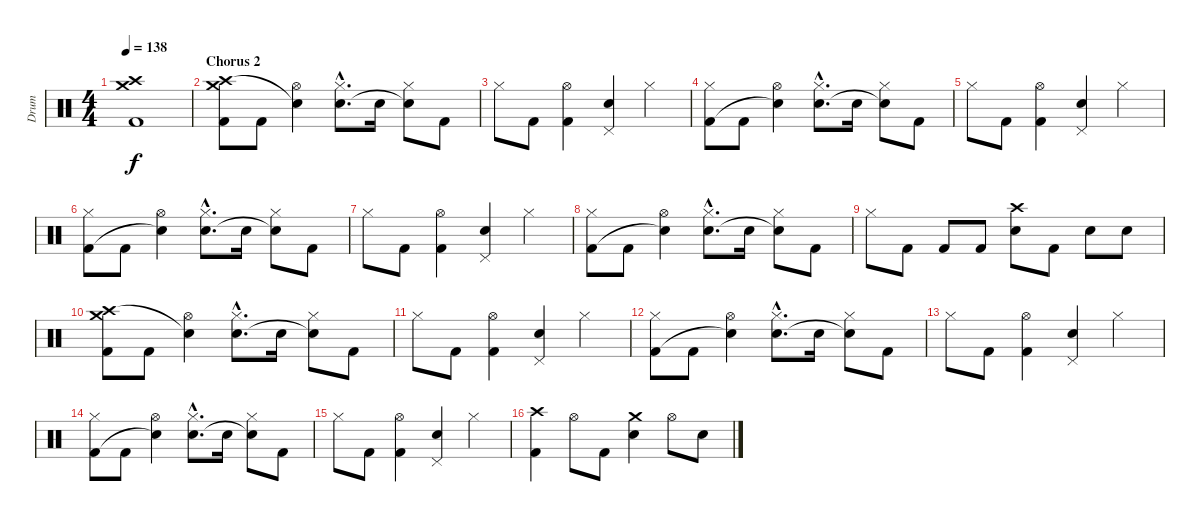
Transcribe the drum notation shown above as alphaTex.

\track ("Drum" "Drum") {instrument percussion}
\staff {score}
\articulation defaults
\ts (4 4)
\tempo 138
\clef neutral
\ks c
("Kick (hit) 2" "Crash high (hit)" "Crash medium (hit)").1{dy f} |
\section ("" "Chorus 2")
("Kick (hit) 2" "Crash high (hit)" "Crash medium (hit)").8 "Kick (hit) 2".8 ("Hi-Hat (open)" "Snare (hit)"{t}).4 ("Hi-Hat (closed)"{hac} "Electric Snare (hit)"{hac}).8{d} "Electric Snare (hit)".16 ("Hi-Hat (closed)" "Snare (hit)"{t}).8 "Kick (hit) 2".8 |
"Hi-Hat (closed)".8 "Kick (hit) 2".8 ("Hi-Hat (open)" "Kick (hit) 2").4 ("Pedal Hi-Hat (hit)" "Electric Snare (hit)").4 "Hi-Hat (closed)".4 |
("Hi-Hat (closed)" "Kick (hit) 2").8 "Kick (hit) 2".8 ("Hi-Hat (open)" "Snare (hit)"{t}).4 ("Hi-Hat (closed)"{hac} "Electric Snare (hit)"{hac}).8{d} "Electric Snare (hit)".16 ("Hi-Hat (closed)" "Snare (hit)"{t}).8 "Kick (hit) 2".8 |
"Hi-Hat (closed)".8 "Kick (hit) 2".8 ("Hi-Hat (open)" "Kick (hit) 2").4 ("Pedal Hi-Hat (hit)" "Electric Snare (hit)").4 "Hi-Hat (closed)".4 |
("Hi-Hat (closed)" "Kick (hit) 2").8 "Kick (hit) 2".8 ("Hi-Hat (open)" "Snare (hit)"{t}).4 ("Hi-Hat (closed)"{hac} "Electric Snare (hit)"{hac}).8{d} "Electric Snare (hit)".16 ("Hi-Hat (closed)" "Snare (hit)"{t}).8 "Kick (hit) 2".8 |
"Hi-Hat (closed)".8 "Kick (hit) 2".8 ("Hi-Hat (open)" "Kick (hit) 2").4 ("Pedal Hi-Hat (hit)" "Electric Snare (hit)").4 "Hi-Hat (closed)".4 |
("Hi-Hat (closed)" "Kick (hit) 2").8 "Kick (hit) 2".8 ("Hi-Hat (open)" "Snare (hit)"{t}).4 ("Hi-Hat (closed)"{hac} "Electric Snare (hit)"{hac}).8{d} "Electric Snare (hit)".16 ("Hi-Hat (closed)" "Snare (hit)"{t}).8 "Kick (hit) 2".8 |
"Hi-Hat (closed)".8 "Kick (hit) 2".8 "Kick (hit) 2".8 "Kick (hit) 2".8 ("Electric Snare (hit)" "Crash high (hit)").8 "Kick (hit) 2".8 "Electric Snare (hit)".8 "Electric Snare (hit)".8 |
\section ("" "")
("Kick (hit) 2" "Crash high (hit)" "Crash medium (hit)").8 "Kick (hit) 2".8 ("Hi-Hat (open)" "Snare (hit)"{t}).4 ("Hi-Hat (closed)"{hac} "Electric Snare (hit)"{hac}).8{d} "Electric Snare (hit)".16 ("Hi-Hat (closed)" "Snare (hit)"{t}).8 "Kick (hit) 2".8 |
"Hi-Hat (closed)".8 "Kick (hit) 2".8 ("Hi-Hat (open)" "Kick (hit) 2").4 ("Pedal Hi-Hat (hit)" "Electric Snare (hit)").4 "Hi-Hat (closed)".4 |
("Hi-Hat (closed)" "Kick (hit) 2").8 "Kick (hit) 2".8 ("Hi-Hat (open)" "Snare (hit)"{t}).4 ("Hi-Hat (closed)"{hac} "Electric Snare (hit)"{hac}).8{d} "Electric Snare (hit)".16 ("Hi-Hat (closed)" "Snare (hit)"{t}).8 "Kick (hit) 2".8 |
"Hi-Hat (closed)".8 "Kick (hit) 2".8 ("Hi-Hat (open)" "Kick (hit) 2").4 ("Pedal Hi-Hat (hit)" "Electric Snare (hit)").4 "Hi-Hat (closed)".4 |
("Hi-Hat (closed)" "Kick (hit) 2").8 "Kick (hit) 2".8 ("Hi-Hat (open)" "Snare (hit)"{t}).4 ("Hi-Hat (closed)"{hac} "Electric Snare (hit)"{hac}).8{d} "Electric Snare (hit)".16 ("Hi-Hat (closed)" "Snare (hit)"{t}).8 "Kick (hit) 2".8 |
"Hi-Hat (closed)".8 "Kick (hit) 2".8 ("Hi-Hat (open)" "Kick (hit) 2").4 ("Pedal Hi-Hat (hit)" "Electric Snare (hit)").4 "Hi-Hat (closed)".4 |
("Kick (hit) 2" "Crash high (hit)").4 "Hi-Hat (open)".8 "Kick (hit) 2".8 ("Electric Snare (hit)" "Crash medium (hit)").4 "Hi-Hat (open)".8 "Electric Snare (hit)".8
